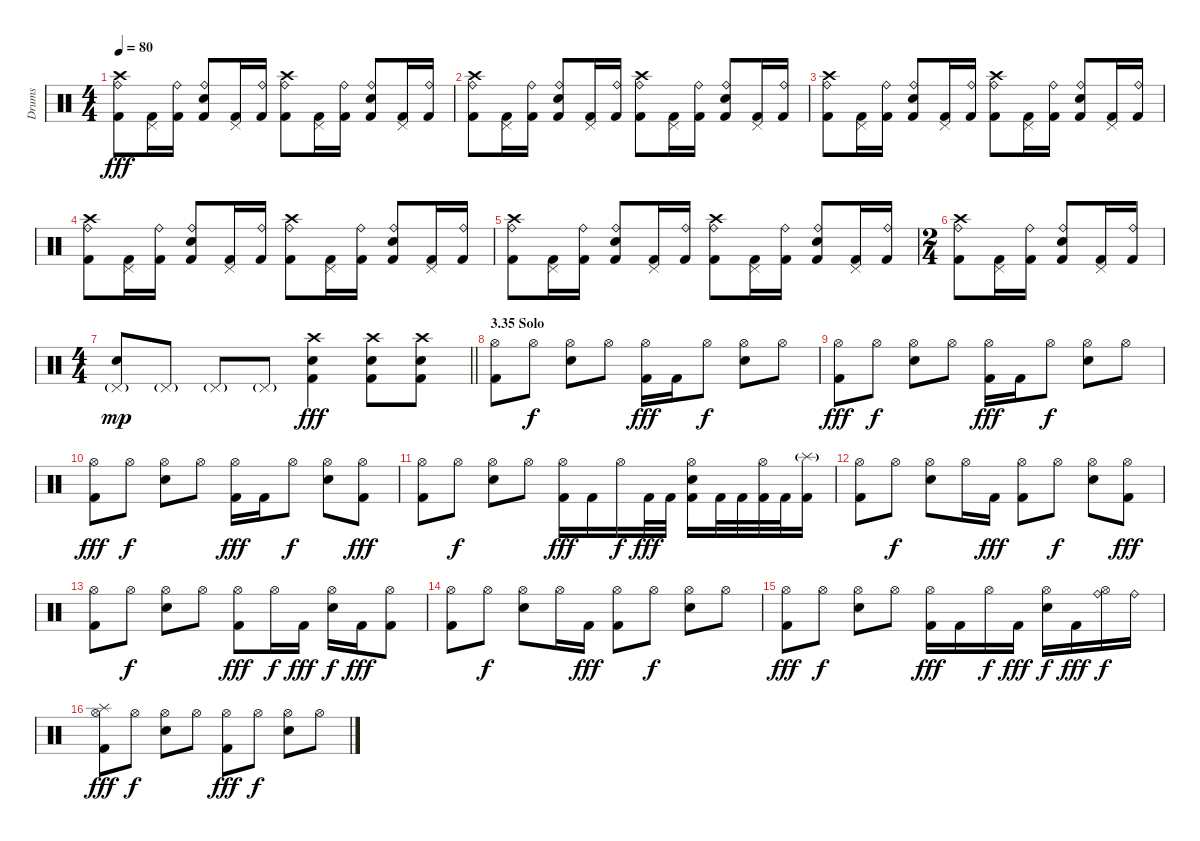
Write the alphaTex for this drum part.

\track ("Drums" "Drums") {instrument percussion}
\staff {score}
\articulation defaults
\ts (4 4)
\tempo 80
\clef neutral
\ks c
("Crash high (hit)" "Ride (bell)" "Kick (hit) 2").8{dy fff} ("Pedal Hi-Hat (hit)" "Kick (hit) 2").16 ("Ride (bell)" "Kick (hit) 2").16 ("Ride (bell)" "Electric Snare (hit)" "Kick (hit) 2").8 ("Pedal Hi-Hat (hit)" "Kick (hit) 2").16 ("Ride (bell)" "Kick (hit) 2").16 ("Crash high (hit)" "Ride (bell)" "Kick (hit) 2").8 ("Pedal Hi-Hat (hit)" "Kick (hit) 2").16 ("Ride (bell)" "Kick (hit) 2").16 ("Ride (bell)" "Electric Snare (hit)" "Kick (hit) 2").8 ("Pedal Hi-Hat (hit)" "Kick (hit) 2").16 ("Ride (bell)" "Kick (hit) 2").16 |
("Crash high (hit)" "Ride (bell)" "Kick (hit) 2").8 ("Pedal Hi-Hat (hit)" "Kick (hit) 2").16 ("Ride (bell)" "Kick (hit) 2").16 ("Ride (bell)" "Electric Snare (hit)" "Kick (hit) 2").8 ("Pedal Hi-Hat (hit)" "Kick (hit) 2").16 ("Ride (bell)" "Kick (hit) 2").16 ("Crash high (hit)" "Ride (bell)" "Kick (hit) 2").8 ("Pedal Hi-Hat (hit)" "Kick (hit) 2").16 ("Ride (bell)" "Kick (hit) 2").16 ("Ride (bell)" "Electric Snare (hit)" "Kick (hit) 2").8 ("Pedal Hi-Hat (hit)" "Kick (hit) 2").16 ("Ride (bell)" "Kick (hit) 2").16 |
("Crash high (hit)" "Ride (bell)" "Kick (hit) 2").8 ("Pedal Hi-Hat (hit)" "Kick (hit) 2").16 ("Ride (bell)" "Kick (hit) 2").16 ("Ride (bell)" "Electric Snare (hit)" "Kick (hit) 2").8 ("Pedal Hi-Hat (hit)" "Kick (hit) 2").16 ("Ride (bell)" "Kick (hit) 2").16 ("Crash high (hit)" "Ride (bell)" "Kick (hit) 2").8 ("Pedal Hi-Hat (hit)" "Kick (hit) 2").16 ("Ride (bell)" "Kick (hit) 2").16 ("Ride (bell)" "Electric Snare (hit)" "Kick (hit) 2").8 ("Pedal Hi-Hat (hit)" "Kick (hit) 2").16 ("Ride (bell)" "Kick (hit) 2").16 |
("Crash high (hit)" "Ride (bell)" "Kick (hit) 2").8 ("Pedal Hi-Hat (hit)" "Kick (hit) 2").16 ("Ride (bell)" "Kick (hit) 2").16 ("Ride (bell)" "Electric Snare (hit)" "Kick (hit) 2").8 ("Pedal Hi-Hat (hit)" "Kick (hit) 2").16 ("Ride (bell)" "Kick (hit) 2").16 ("Crash high (hit)" "Ride (bell)" "Kick (hit) 2").8 ("Pedal Hi-Hat (hit)" "Kick (hit) 2").16 ("Ride (bell)" "Kick (hit) 2").16 ("Ride (bell)" "Electric Snare (hit)" "Kick (hit) 2").8 ("Pedal Hi-Hat (hit)" "Kick (hit) 2").16 ("Ride (bell)" "Kick (hit) 2").16 |
("Crash high (hit)" "Ride (bell)" "Kick (hit) 2").8 ("Pedal Hi-Hat (hit)" "Kick (hit) 2").16 ("Ride (bell)" "Kick (hit) 2").16 ("Ride (bell)" "Electric Snare (hit)" "Kick (hit) 2").8 ("Pedal Hi-Hat (hit)" "Kick (hit) 2").16 ("Ride (bell)" "Kick (hit) 2").16 ("Crash high (hit)" "Ride (bell)" "Kick (hit) 2").8 ("Pedal Hi-Hat (hit)" "Kick (hit) 2").16 ("Ride (bell)" "Kick (hit) 2").16 ("Ride (bell)" "Electric Snare (hit)" "Kick (hit) 2").8 ("Pedal Hi-Hat (hit)" "Kick (hit) 2").16 ("Ride (bell)" "Kick (hit) 2").16 |
\ts (2 4)
("Crash high (hit)" "Ride (bell)" "Kick (hit) 2").8 ("Pedal Hi-Hat (hit)" "Kick (hit) 2").16 ("Ride (bell)" "Kick (hit) 2").16 ("Ride (bell)" "Electric Snare (hit)" "Kick (hit) 2").8 ("Pedal Hi-Hat (hit)" "Kick (hit) 2").16 ("Ride (bell)" "Kick (hit) 2").16 |
\ts (4 4)
\barLineRight lightlight
("Pedal Hi-Hat (hit)"{g} "Electric Snare (hit)").8{dy mp} "Pedal Hi-Hat (hit)"{g}.8 "Pedal Hi-Hat (hit)"{g}.8 "Pedal Hi-Hat (hit)"{g}.8 ("Crash high (hit)" "Electric Snare (hit)" "Kick (hit) 2").4{dy fff} ("Crash high (hit)" "Electric Snare (hit)" "Kick (hit) 2").8 ("Crash high (hit)" "Electric Snare (hit)" "Kick (hit) 2").8 |
\section ("" "3.35 Solo")
("Hi-Hat (open)" "Kick (hit) 2").8 "Hi-Hat (open)".8{dy f} ("Hi-Hat (open)" "Electric Snare (hit)").8 "Hi-Hat (open)".8 ("Hi-Hat (open)" "Kick (hit) 2").16{dy fff} "Kick (hit) 2".16 "Hi-Hat (open)".8{dy f} ("Hi-Hat (open)" "Electric Snare (hit)").8 "Hi-Hat (open)".8 |
("Hi-Hat (open)" "Kick (hit) 2").8{dy fff} "Hi-Hat (open)".8{dy f} ("Hi-Hat (open)" "Electric Snare (hit)").8 "Hi-Hat (open)".8 ("Hi-Hat (open)" "Kick (hit) 2").16{dy fff} "Kick (hit) 2".16 "Hi-Hat (open)".8{dy f} ("Hi-Hat (open)" "Electric Snare (hit)").8 "Hi-Hat (open)".8 |
("Hi-Hat (open)" "Kick (hit) 2").8{dy fff} "Hi-Hat (open)".8{dy f} ("Hi-Hat (open)" "Electric Snare (hit)").8 "Hi-Hat (open)".8 ("Hi-Hat (open)" "Kick (hit) 2").16{dy fff} "Kick (hit) 2".16 "Hi-Hat (open)".8{dy f} ("Hi-Hat (open)" "Electric Snare (hit)").8 ("Hi-Hat (open)" "Kick (hit) 2").8{dy fff} |
("Hi-Hat (open)" "Kick (hit) 2").8 "Hi-Hat (open)".8{dy f} ("Hi-Hat (open)" "Electric Snare (hit)").8 "Hi-Hat (open)".8 ("Hi-Hat (open)" "Kick (hit) 2").16{dy fff} "Kick (hit) 2".16 "Hi-Hat (open)".16{dy f} "Kick (hit) 2".32{dy fff} "Kick (hit) 2".32 ("Hi-Hat (open)" "Electric Snare (hit)" "Kick (hit) 2").16 "Kick (hit) 2".32 "Kick (hit) 2".32 ("Hi-Hat (open)" "Kick (hit) 2").32 "Kick (hit) 2".32 ("Splash (hit)"{g} "Kick (hit) 2").16 |
("Hi-Hat (open)" "Kick (hit) 2").8 "Hi-Hat (open)".8{dy f} ("Hi-Hat (open)" "Electric Snare (hit)").8 "Hi-Hat (open)".16 "Kick (hit) 2".16{dy fff} ("Hi-Hat (open)" "Kick (hit) 2").8 "Hi-Hat (open)".8{dy f} ("Hi-Hat (open)" "Electric Snare (hit)").8 ("Hi-Hat (open)" "Kick (hit) 2").8{dy fff} |
("Hi-Hat (open)" "Kick (hit) 2").8 "Hi-Hat (open)".8{dy f} ("Hi-Hat (open)" "Electric Snare (hit)").8 "Hi-Hat (open)".8 ("Hi-Hat (open)" "Kick (hit) 2").8{dy fff} "Hi-Hat (open)".16{dy f} "Kick (hit) 2".16{dy fff} ("Hi-Hat (open)" "Electric Snare (hit)").16{dy f} "Kick (hit) 2".16{dy fff} ("Hi-Hat (open)" "Kick (hit) 2").8 |
("Hi-Hat (open)" "Kick (hit) 2").8 "Hi-Hat (open)".8{dy f} ("Hi-Hat (open)" "Electric Snare (hit)").8 "Hi-Hat (open)".16 "Kick (hit) 2".16{dy fff} ("Hi-Hat (open)" "Kick (hit) 2").8 "Hi-Hat (open)".8{dy f} ("Hi-Hat (open)" "Electric Snare (hit)").8 "Hi-Hat (open)".8 |
("Hi-Hat (open)" "Kick (hit) 2").8{dy fff} "Hi-Hat (open)".8{dy f} ("Hi-Hat (open)" "Electric Snare (hit)").8 "Hi-Hat (open)".8 ("Hi-Hat (open)" "Kick (hit) 2").16{dy fff} "Kick (hit) 2".16 "Hi-Hat (open)".16{dy f} "Kick (hit) 2".16{dy fff} ("Hi-Hat (open)" "Electric Snare (hit)").16{dy f} "Kick (hit) 2".16{dy fff} ("Ride (bell)" "Hi-Hat (open)").16{dy f} "Ride (bell)".16 |
("Splash (hit)" "Hi-Hat (open)" "Kick (hit) 2").8{dy fff} "Hi-Hat (open)".8{dy f} ("Hi-Hat (open)" "Electric Snare (hit)").8 "Hi-Hat (open)".8 ("Hi-Hat (open)" "Kick (hit) 2").8{dy fff} "Hi-Hat (open)".8{dy f} ("Hi-Hat (open)" "Electric Snare (hit)").8 "Hi-Hat (open)".8
